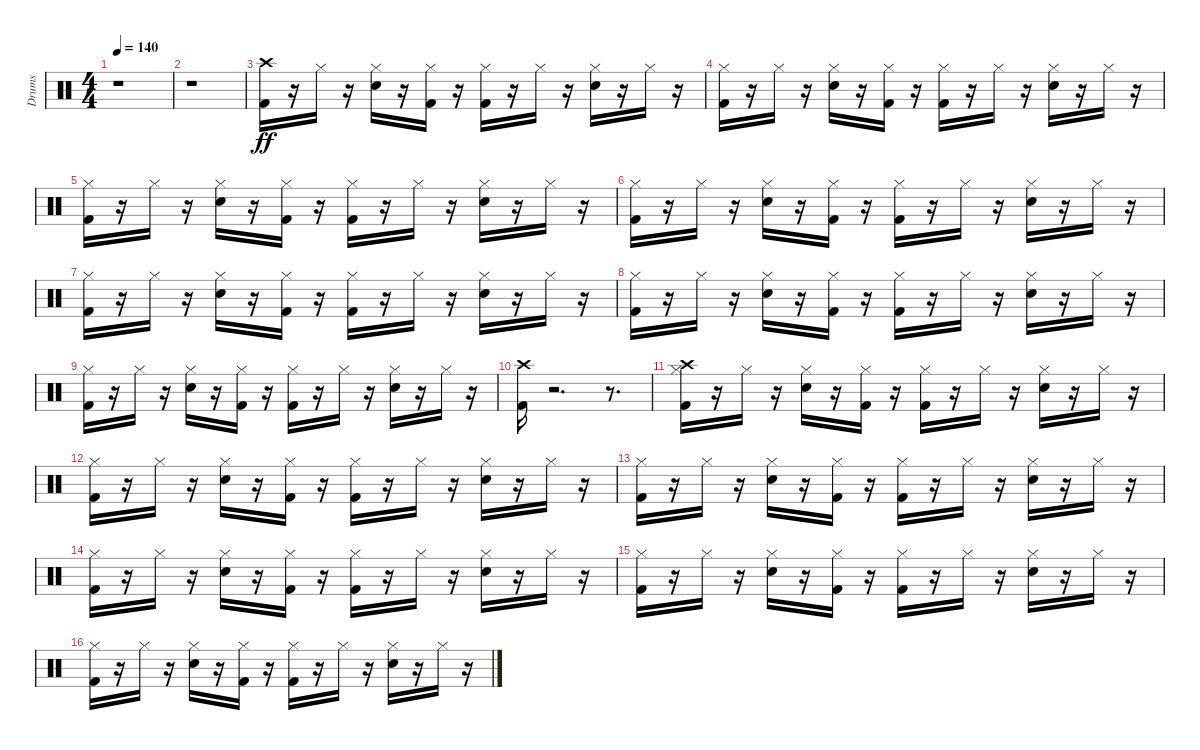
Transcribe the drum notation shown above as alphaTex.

\track ("Drums" "Drums") {instrument percussion}
\staff {score}
\articulation defaults
\ts (4 4)
\tempo 140
\clef neutral
\ks c
r.1{dy ff} |
r.1 |
("Crash high (hit)" "Kick (hit) 2").16 r.16 "Hi-Hat (closed)".16 r.16 ("Hi-Hat (closed)" "Snare (hit) 2").16 r.16 ("Hi-Hat (closed)" "Kick (hit) 2").16 r.16 ("Hi-Hat (closed)" "Kick (hit) 2").16 r.16 "Hi-Hat (closed)".16 r.16 ("Hi-Hat (closed)" "Snare (hit) 2").16 r.16 "Hi-Hat (closed)".16 r.16 |
("Hi-Hat (closed)" "Kick (hit) 2").16 r.16 "Hi-Hat (closed)".16 r.16 ("Hi-Hat (closed)" "Snare (hit) 2").16 r.16 ("Hi-Hat (closed)" "Kick (hit) 2").16 r.16 ("Hi-Hat (closed)" "Kick (hit) 2").16 r.16 "Hi-Hat (closed)".16 r.16 ("Hi-Hat (closed)" "Snare (hit) 2").16 r.16 "Hi-Hat (closed)".16 r.16 |
("Hi-Hat (closed)" "Kick (hit) 2").16 r.16 "Hi-Hat (closed)".16 r.16 ("Hi-Hat (closed)" "Snare (hit) 2").16 r.16 ("Hi-Hat (closed)" "Kick (hit) 2").16 r.16 ("Hi-Hat (closed)" "Kick (hit) 2").16 r.16 "Hi-Hat (closed)".16 r.16 ("Hi-Hat (closed)" "Snare (hit) 2").16 r.16 "Hi-Hat (closed)".16 r.16 |
("Hi-Hat (closed)" "Kick (hit) 2").16 r.16 "Hi-Hat (closed)".16 r.16 ("Hi-Hat (closed)" "Snare (hit) 2").16 r.16 ("Hi-Hat (closed)" "Kick (hit) 2").16 r.16 ("Hi-Hat (closed)" "Kick (hit) 2").16 r.16 "Hi-Hat (closed)".16 r.16 ("Hi-Hat (closed)" "Snare (hit) 2").16 r.16 "Hi-Hat (closed)".16 r.16 |
("Hi-Hat (closed)" "Kick (hit) 2").16 r.16 "Hi-Hat (closed)".16 r.16 ("Hi-Hat (closed)" "Snare (hit) 2").16 r.16 ("Hi-Hat (closed)" "Kick (hit) 2").16 r.16 ("Hi-Hat (closed)" "Kick (hit) 2").16 r.16 "Hi-Hat (closed)".16 r.16 ("Hi-Hat (closed)" "Snare (hit) 2").16 r.16 "Hi-Hat (closed)".16 r.16 |
("Hi-Hat (closed)" "Kick (hit) 2").16 r.16 "Hi-Hat (closed)".16 r.16 ("Hi-Hat (closed)" "Snare (hit) 2").16 r.16 ("Hi-Hat (closed)" "Kick (hit) 2").16 r.16 ("Hi-Hat (closed)" "Kick (hit) 2").16 r.16 "Hi-Hat (closed)".16 r.16 ("Hi-Hat (closed)" "Snare (hit) 2").16 r.16 "Hi-Hat (closed)".16 r.16 |
("Hi-Hat (closed)" "Kick (hit) 2").16 r.16 "Hi-Hat (closed)".16 r.16 ("Hi-Hat (closed)" "Snare (hit) 2").16 r.16 ("Hi-Hat (closed)" "Kick (hit) 2").16 r.16 ("Hi-Hat (closed)" "Kick (hit) 2").16 r.16 "Hi-Hat (closed)".16 r.16 ("Hi-Hat (closed)" "Snare (hit) 2").16 r.16 "Hi-Hat (closed)".16 r.16 |
("Crash high (hit)" "Kick (hit) 2").16 r.2{d} r.8{d} |
("Hi-Hat (closed)" "Kick (hit) 2" "Crash high (hit)").16 r.16 "Hi-Hat (closed)".16 r.16 ("Hi-Hat (closed)" "Snare (hit) 2").16 r.16 ("Hi-Hat (closed)" "Kick (hit) 2").16 r.16 ("Hi-Hat (closed)" "Kick (hit) 2").16 r.16 "Hi-Hat (closed)".16 r.16 ("Hi-Hat (closed)" "Snare (hit) 2").16 r.16 "Hi-Hat (closed)".16 r.16 |
("Hi-Hat (closed)" "Kick (hit) 2").16 r.16 "Hi-Hat (closed)".16 r.16 ("Hi-Hat (closed)" "Snare (hit) 2").16 r.16 ("Hi-Hat (closed)" "Kick (hit) 2").16 r.16 ("Hi-Hat (closed)" "Kick (hit) 2").16 r.16 "Hi-Hat (closed)".16 r.16 ("Hi-Hat (closed)" "Snare (hit) 2").16 r.16 "Hi-Hat (closed)".16 r.16 |
("Hi-Hat (closed)" "Kick (hit) 2").16 r.16 "Hi-Hat (closed)".16 r.16 ("Hi-Hat (closed)" "Snare (hit) 2").16 r.16 ("Hi-Hat (closed)" "Kick (hit) 2").16 r.16 ("Hi-Hat (closed)" "Kick (hit) 2").16 r.16 "Hi-Hat (closed)".16 r.16 ("Hi-Hat (closed)" "Snare (hit) 2").16 r.16 "Hi-Hat (closed)".16 r.16 |
("Hi-Hat (closed)" "Kick (hit) 2").16 r.16 "Hi-Hat (closed)".16 r.16 ("Hi-Hat (closed)" "Snare (hit) 2").16 r.16 ("Hi-Hat (closed)" "Kick (hit) 2").16 r.16 ("Hi-Hat (closed)" "Kick (hit) 2").16 r.16 "Hi-Hat (closed)".16 r.16 ("Hi-Hat (closed)" "Snare (hit) 2").16 r.16 "Hi-Hat (closed)".16 r.16 |
("Hi-Hat (closed)" "Kick (hit) 2").16 r.16 "Hi-Hat (closed)".16 r.16 ("Hi-Hat (closed)" "Snare (hit) 2").16 r.16 ("Hi-Hat (closed)" "Kick (hit) 2").16 r.16 ("Hi-Hat (closed)" "Kick (hit) 2").16 r.16 "Hi-Hat (closed)".16 r.16 ("Hi-Hat (closed)" "Snare (hit) 2").16 r.16 "Hi-Hat (closed)".16 r.16 |
("Hi-Hat (closed)" "Kick (hit) 2").16 r.16 "Hi-Hat (closed)".16 r.16 ("Hi-Hat (closed)" "Snare (hit) 2").16 r.16 ("Hi-Hat (closed)" "Kick (hit) 2").16 r.16 ("Hi-Hat (closed)" "Kick (hit) 2").16 r.16 "Hi-Hat (closed)".16 r.16 ("Hi-Hat (closed)" "Snare (hit) 2").16 r.16 "Hi-Hat (closed)".16 r.16
